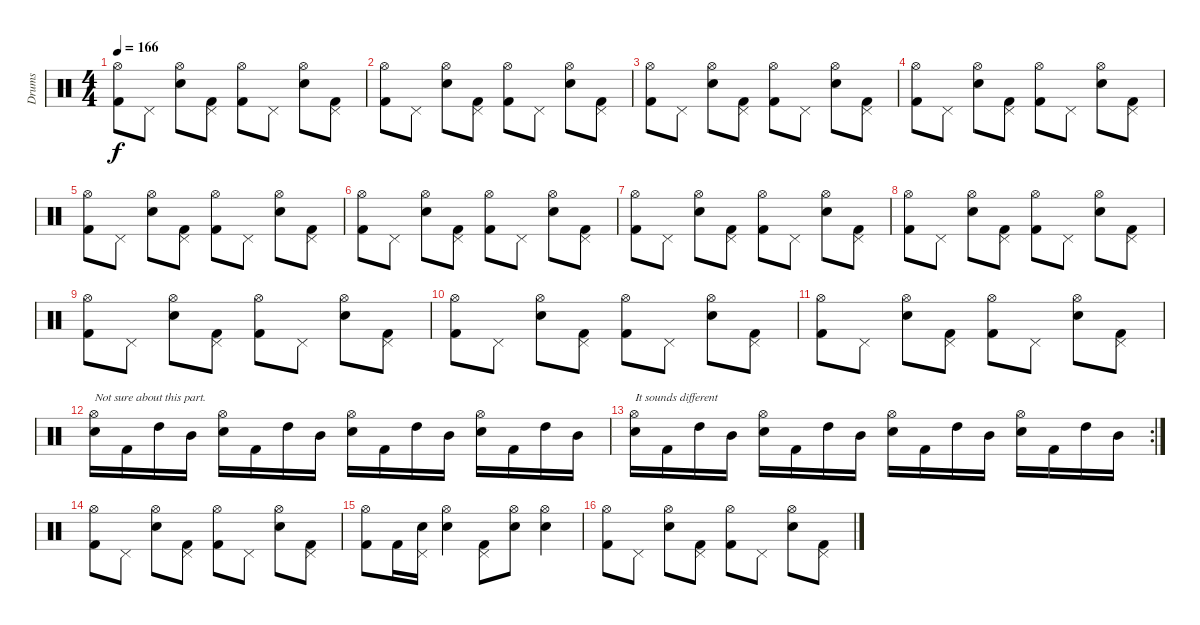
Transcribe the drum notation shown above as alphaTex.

\track ("Drums" "Drums") {instrument percussion}
\staff {score}
\articulation defaults
\ts (4 4)
\tempo 166
\clef neutral
\ks c
("Kick (hit) 2" "Hi-Hat (open)").8{dy f} "Pedal Hi-Hat (hit)".8 ("Snare (hit) 2" "Hi-Hat (open)").8 ("Kick (hit) 2" "Pedal Hi-Hat (hit)").8 ("Kick (hit) 2" "Hi-Hat (open)").8 "Pedal Hi-Hat (hit)".8 ("Snare (hit) 2" "Hi-Hat (open)").8 ("Kick (hit) 2" "Pedal Hi-Hat (hit)").8 |
("Kick (hit) 2" "Hi-Hat (open)").8 "Pedal Hi-Hat (hit)".8 ("Snare (hit) 2" "Hi-Hat (open)").8 ("Kick (hit) 2" "Pedal Hi-Hat (hit)").8 ("Kick (hit) 2" "Hi-Hat (open)").8 "Pedal Hi-Hat (hit)".8 ("Snare (hit) 2" "Hi-Hat (open)").8 ("Kick (hit) 2" "Pedal Hi-Hat (hit)").8 |
("Kick (hit) 2" "Hi-Hat (open)").8 "Pedal Hi-Hat (hit)".8 ("Snare (hit) 2" "Hi-Hat (open)").8 ("Kick (hit) 2" "Pedal Hi-Hat (hit)").8 ("Kick (hit) 2" "Hi-Hat (open)").8 "Pedal Hi-Hat (hit)".8 ("Snare (hit) 2" "Hi-Hat (open)").8 ("Kick (hit) 2" "Pedal Hi-Hat (hit)").8 |
("Kick (hit) 2" "Hi-Hat (open)").8 "Pedal Hi-Hat (hit)".8 ("Snare (hit) 2" "Hi-Hat (open)").8 ("Kick (hit) 2" "Pedal Hi-Hat (hit)").8 ("Kick (hit) 2" "Hi-Hat (open)").8 "Pedal Hi-Hat (hit)".8 ("Snare (hit) 2" "Hi-Hat (open)").8 ("Kick (hit) 2" "Pedal Hi-Hat (hit)").8 |
("Kick (hit) 2" "Hi-Hat (open)").8 "Pedal Hi-Hat (hit)".8 ("Snare (hit) 2" "Hi-Hat (open)").8 ("Kick (hit) 2" "Pedal Hi-Hat (hit)").8 ("Kick (hit) 2" "Hi-Hat (open)").8 "Pedal Hi-Hat (hit)".8 ("Snare (hit) 2" "Hi-Hat (open)").8 ("Kick (hit) 2" "Pedal Hi-Hat (hit)").8 |
("Kick (hit) 2" "Hi-Hat (open)").8 "Pedal Hi-Hat (hit)".8 ("Snare (hit) 2" "Hi-Hat (open)").8 ("Kick (hit) 2" "Pedal Hi-Hat (hit)").8 ("Kick (hit) 2" "Hi-Hat (open)").8 "Pedal Hi-Hat (hit)".8 ("Snare (hit) 2" "Hi-Hat (open)").8 ("Kick (hit) 2" "Pedal Hi-Hat (hit)").8 |
("Kick (hit) 2" "Hi-Hat (open)").8 "Pedal Hi-Hat (hit)".8 ("Snare (hit) 2" "Hi-Hat (open)").8 ("Kick (hit) 2" "Pedal Hi-Hat (hit)").8 ("Kick (hit) 2" "Hi-Hat (open)").8 "Pedal Hi-Hat (hit)".8 ("Snare (hit) 2" "Hi-Hat (open)").8 ("Kick (hit) 2" "Pedal Hi-Hat (hit)").8 |
("Kick (hit) 2" "Hi-Hat (open)").8 "Pedal Hi-Hat (hit)".8 ("Snare (hit) 2" "Hi-Hat (open)").8 ("Kick (hit) 2" "Pedal Hi-Hat (hit)").8 ("Kick (hit) 2" "Hi-Hat (open)").8 "Pedal Hi-Hat (hit)".8 ("Snare (hit) 2" "Hi-Hat (open)").8 ("Kick (hit) 2" "Pedal Hi-Hat (hit)").8 |
("Kick (hit) 2" "Hi-Hat (open)").8 "Pedal Hi-Hat (hit)".8 ("Snare (hit) 2" "Hi-Hat (open)").8 ("Kick (hit) 2" "Pedal Hi-Hat (hit)").8 ("Kick (hit) 2" "Hi-Hat (open)").8 "Pedal Hi-Hat (hit)".8 ("Snare (hit) 2" "Hi-Hat (open)").8 ("Kick (hit) 2" "Pedal Hi-Hat (hit)").8 |
("Kick (hit) 2" "Hi-Hat (open)").8 "Pedal Hi-Hat (hit)".8 ("Snare (hit) 2" "Hi-Hat (open)").8 ("Kick (hit) 2" "Pedal Hi-Hat (hit)").8 ("Kick (hit) 2" "Hi-Hat (open)").8 "Pedal Hi-Hat (hit)".8 ("Snare (hit) 2" "Hi-Hat (open)").8 ("Kick (hit) 2" "Pedal Hi-Hat (hit)").8 |
("Kick (hit) 2" "Hi-Hat (open)").8 "Pedal Hi-Hat (hit)".8 ("Snare (hit) 2" "Hi-Hat (open)").8 ("Kick (hit) 2" "Pedal Hi-Hat (hit)").8 ("Kick (hit) 2" "Hi-Hat (open)").8 "Pedal Hi-Hat (hit)".8 ("Snare (hit) 2" "Hi-Hat (open)").8 ("Kick (hit) 2" "Pedal Hi-Hat (hit)").8 |
("Snare (hit) 2" "Hi-Hat (open)").16{txt "Not sure about this part."} "Kick (hit) 2".16 "High Tom (hit)".16 "Mid Tom (hit)".16 ("Snare (hit) 2" "Hi-Hat (open)").16 "Kick (hit) 2".16 "High Tom (hit)".16 "Mid Tom (hit)".16 ("Snare (hit) 2" "Hi-Hat (open)").16 "Kick (hit) 2".16 "High Tom (hit)".16 "Mid Tom (hit)".16 ("Snare (hit) 2" "Hi-Hat (open)").16 "Kick (hit) 2".16 "High Tom (hit)".16 "Mid Tom (hit)".16 |
\rc 2
("Snare (hit) 2" "Hi-Hat (open)").16{txt "It sounds different"} "Kick (hit) 2".16 "High Tom (hit)".16 "Mid Tom (hit)".16 ("Snare (hit) 2" "Hi-Hat (open)").16 "Kick (hit) 2".16 "High Tom (hit)".16 "Mid Tom (hit)".16 ("Snare (hit) 2" "Hi-Hat (open)").16 "Kick (hit) 2".16 "High Tom (hit)".16 "Mid Tom (hit)".16 ("Snare (hit) 2" "Hi-Hat (open)").16 "Kick (hit) 2".16 "High Tom (hit)".16 "Mid Tom (hit)".16 |
("Kick (hit) 2" "Hi-Hat (open)").8 "Pedal Hi-Hat (hit)".8 ("Snare (hit) 2" "Hi-Hat (open)").8 ("Kick (hit) 2" "Pedal Hi-Hat (hit)").8 ("Kick (hit) 2" "Hi-Hat (open)").8 "Pedal Hi-Hat (hit)".8 ("Snare (hit) 2" "Hi-Hat (open)").8 ("Kick (hit) 2" "Pedal Hi-Hat (hit)").8 |
("Kick (hit) 2" "Hi-Hat (open)").8 "Kick (hit) 2".16 ("Snare (hit) 2" "Pedal Hi-Hat (hit)").16 ("Snare (hit) 2" "Hi-Hat (open)").4 ("Kick (hit) 2" "Pedal Hi-Hat (hit)").8 ("Snare (hit) 2" "Hi-Hat (open)").8 ("Snare (hit) 2" "Hi-Hat (open)").4 |
("Kick (hit) 2" "Hi-Hat (open)").8 "Pedal Hi-Hat (hit)".8 ("Snare (hit) 2" "Hi-Hat (open)").8 ("Kick (hit) 2" "Pedal Hi-Hat (hit)").8 ("Kick (hit) 2" "Hi-Hat (open)").8 "Pedal Hi-Hat (hit)".8 ("Snare (hit) 2" "Hi-Hat (open)").8 ("Kick (hit) 2" "Pedal Hi-Hat (hit)").8
